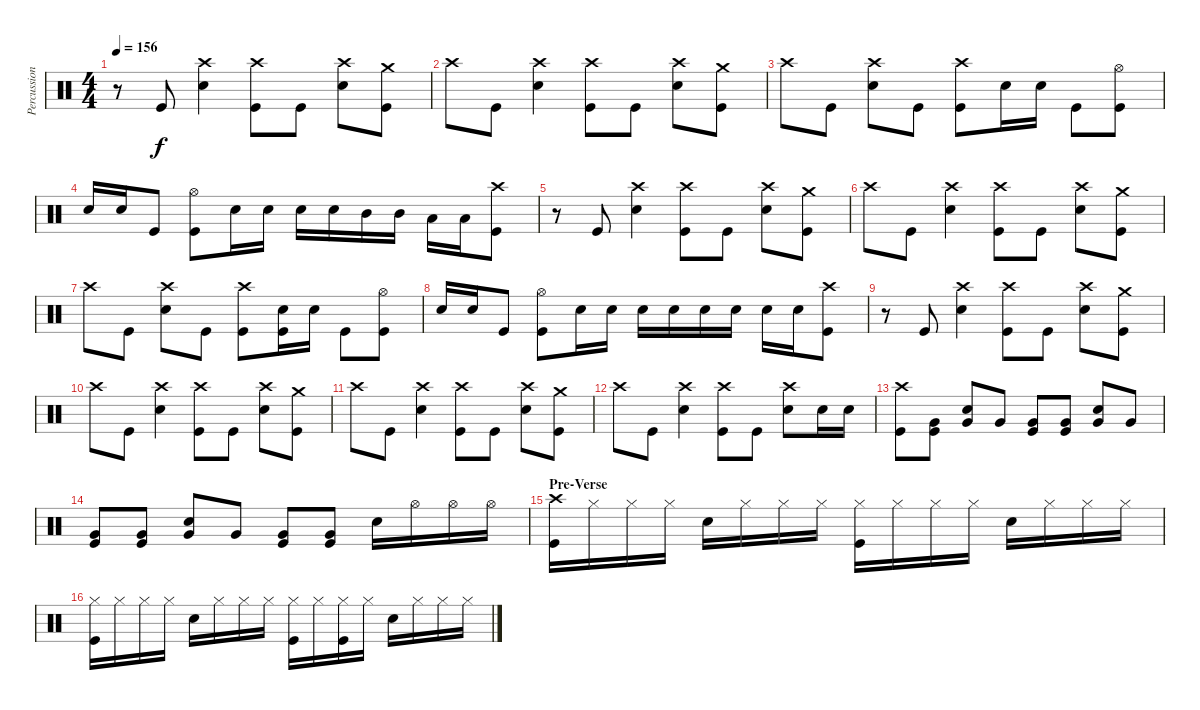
\track ("Percussion" "Percussion") {instrument percussion}
\staff {score}
\articulation defaults
\ts (4 4)
\tempo 156
\clef neutral
\ks c
r.8{dy f} "Kick (hit)".8 ("Crash high (hit)" "Snare (hit) 2").4 ("Crash high (hit)" "Kick (hit)").8 "Kick (hit)".8 ("Crash high (hit)" "Snare (hit) 2").8 ("Crash medium (hit)" "Kick (hit)").8 |
"Crash high (hit)".8 "Kick (hit)".8 ("Crash high (hit)" "Snare (hit) 2").4 ("Crash high (hit)" "Kick (hit)").8 "Kick (hit)".8 ("Crash high (hit)" "Snare (hit) 2").8 ("Crash medium (hit)" "Kick (hit)").8 |
"Crash high (hit)".8 "Kick (hit)".8 ("Crash high (hit)" "Snare (hit) 2").8 "Kick (hit)".8 ("Crash high (hit)" "Kick (hit)").8 "Snare (hit) 2".16 "Snare (hit) 2".16 "Kick (hit)".8 ("Hi-Hat (open)" "Kick (hit)").8 |
"Snare (hit) 2".16 "Snare (hit) 2".16 "Kick (hit)".8 ("Hi-Hat (open)" "Kick (hit)").8 "Snare (hit) 2".16 "Snare (hit) 2".16 "Snare (hit) 2".16 "Snare (hit) 2".16 "Mid Tom (hit)".16 "Mid Tom (hit)".16 "Low Tom (hit)".16 "Low Tom (hit)".16 ("Crash high (hit)" "Kick (hit)").8 |
r.8 "Kick (hit)".8 ("Crash high (hit)" "Snare (hit) 2").4 ("Crash high (hit)" "Kick (hit)").8 "Kick (hit)".8 ("Crash high (hit)" "Snare (hit) 2").8 ("Crash medium (hit)" "Kick (hit)").8 |
"Crash high (hit)".8 "Kick (hit)".8 ("Crash high (hit)" "Snare (hit) 2").4 ("Crash high (hit)" "Kick (hit)").8 "Kick (hit)".8 ("Crash high (hit)" "Snare (hit) 2").8 ("Crash medium (hit)" "Kick (hit)").8 |
"Crash high (hit)".8 "Kick (hit)".8 ("Crash high (hit)" "Snare (hit) 2").8 "Kick (hit)".8 ("Crash high (hit)" "Kick (hit)").8 ("Snare (hit) 2" "Kick (hit)").16 "Snare (hit) 2".16 "Kick (hit)".8 ("Hi-Hat (open)" "Kick (hit)").8 |
"Snare (hit) 2".16 "Snare (hit) 2".16 "Kick (hit)".8 ("Hi-Hat (open)" "Kick (hit)").8 "Snare (hit) 2".16 "Snare (hit) 2".16 "Snare (hit) 2".16 "Snare (hit) 2".16 "Snare (hit) 2".16 "Snare (hit) 2".16 "Snare (hit) 2".16 "Snare (hit) 2".16 ("Crash high (hit)" "Kick (hit)").8 |
r.8 "Kick (hit)".8 ("Crash high (hit)" "Snare (hit) 2").4 ("Crash high (hit)" "Kick (hit)").8 "Kick (hit)".8 ("Crash high (hit)" "Snare (hit) 2").8 ("Crash medium (hit)" "Kick (hit)").8 |
"Crash high (hit)".8 "Kick (hit)".8 ("Crash high (hit)" "Snare (hit) 2").4 ("Crash high (hit)" "Kick (hit)").8 "Kick (hit)".8 ("Crash high (hit)" "Snare (hit) 2").8 ("Crash medium (hit)" "Kick (hit)").8 |
"Crash high (hit)".8 "Kick (hit)".8 ("Crash high (hit)" "Snare (hit) 2").4 ("Crash high (hit)" "Kick (hit)").8 "Kick (hit)".8 ("Crash high (hit)" "Snare (hit) 2").8 ("Crash medium (hit)" "Kick (hit)").8 |
"Crash high (hit)".8 "Kick (hit)".8 ("Crash high (hit)" "Snare (hit) 2").4 ("Crash high (hit)" "Kick (hit)").8 "Kick (hit)".8 ("Crash high (hit)" "Snare (hit) 2").8 "Snare (hit) 2".16 "Snare (hit) 2".16 |
("Crash high (hit)" "Kick (hit)").8 ("Very Low Tom (hit)" "Kick (hit)").8 ("Snare (hit) 2" "Very Low Tom (hit)").8 "Very Low Tom (hit)".8 ("Very Low Tom (hit)" "Kick (hit)").8 ("Very Low Tom (hit)" "Kick (hit)").8 ("Snare (hit) 2" "Very Low Tom (hit)").8 "Very Low Tom (hit)".8 |
("Very Low Tom (hit)" "Kick (hit)").8 ("Very Low Tom (hit)" "Kick (hit)").8 ("Snare (hit) 2" "Very Low Tom (hit)").8 "Very Low Tom (hit)".8 ("Very Low Tom (hit)" "Kick (hit)").8 ("Very Low Tom (hit)" "Kick (hit)").8 "Snare (hit) 2".16 "Hi-Hat (open)".16 "Hi-Hat (open)".16 "Hi-Hat (open)".16 |
\section ("" "Pre-Verse")
("Crash high (hit)" "Kick (hit)").16 "Hi-Hat (closed)".16 "Hi-Hat (closed)".16 "Hi-Hat (closed)".16 "Snare (hit) 2".16 "Hi-Hat (closed)".16 "Hi-Hat (closed)".16 "Hi-Hat (closed)".16 ("Hi-Hat (closed)" "Kick (hit)").16 "Hi-Hat (closed)".16 "Hi-Hat (closed)".16 "Hi-Hat (closed)".16 "Snare (hit) 2".16 "Hi-Hat (closed)".16 "Hi-Hat (closed)".16 "Hi-Hat (closed)".16 |
("Hi-Hat (closed)" "Kick (hit)").16 "Hi-Hat (closed)".16 "Hi-Hat (closed)".16 "Hi-Hat (closed)".16 "Snare (hit) 2".16 "Hi-Hat (closed)".16 "Hi-Hat (closed)".16 "Hi-Hat (closed)".16 ("Hi-Hat (closed)" "Kick (hit)").16 "Hi-Hat (closed)".16 ("Hi-Hat (closed)" "Kick (hit)").16 "Hi-Hat (closed)".16 "Snare (hit) 2".16 "Hi-Hat (closed)".16 "Hi-Hat (closed)".16 "Hi-Hat (closed)".16
